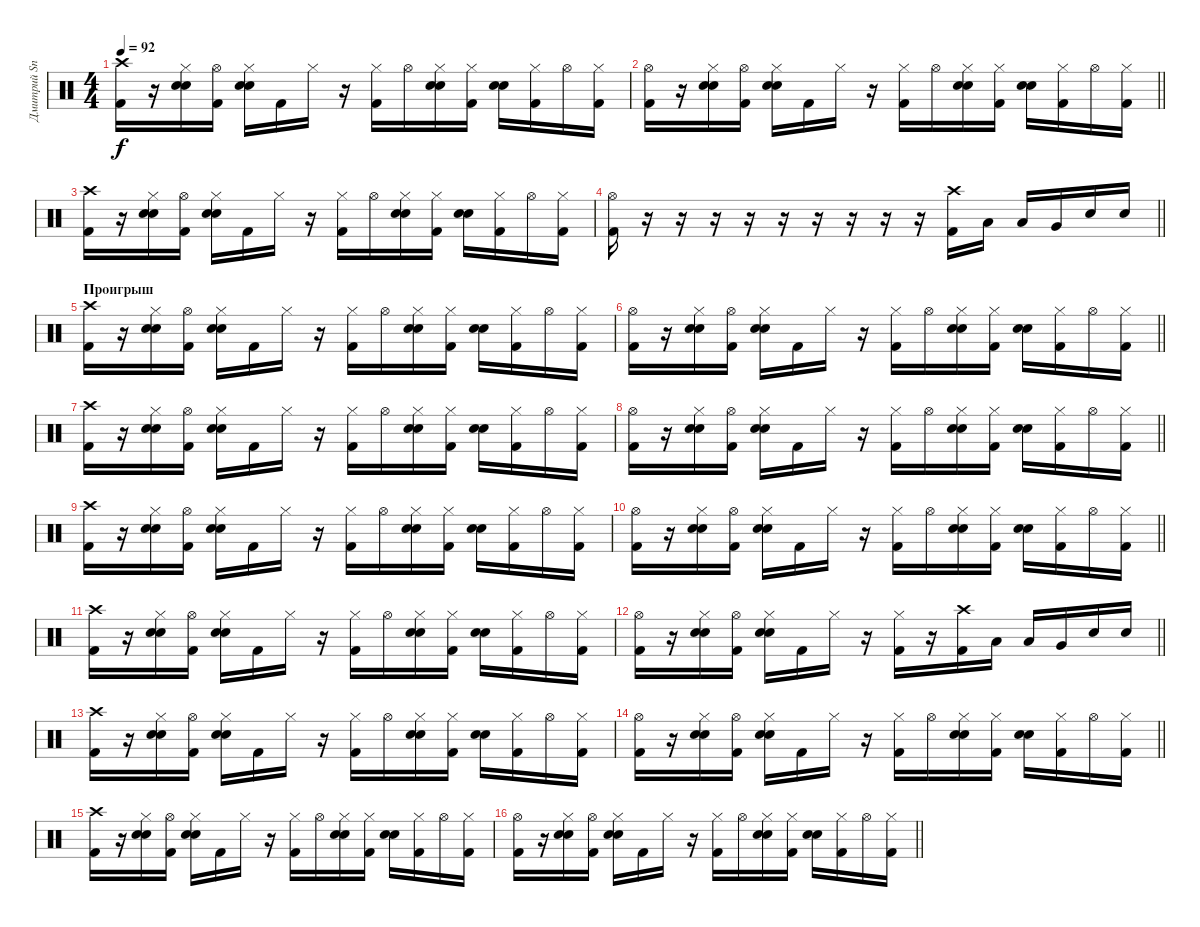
\track ("Дмитрий Snake Хакимов" "Дмитрий Sn") {instrument percussion}
\staff {score}
\articulation defaults
\ts (4 4)
\tempo 92
\clef neutral
\ks c
("Crash high (hit)" "Kick (hit) 2").16{dy f} r.16 ("Hi-Hat (closed)" "Snare (hit) 2" "Electric Snare (hit)").16 ("Hi-Hat (open)" "Kick (hit) 2").16 ("Hi-Hat (closed)" "Snare (hit) 2" "Electric Snare (hit)").16 "Kick (hit) 2".16 "Hi-Hat (closed)".16 r.16 ("Hi-Hat (closed)" "Kick (hit) 2").16 "Hi-Hat (open)".16 ("Hi-Hat (closed)" "Snare (hit) 2" "Electric Snare (hit)").16 ("Hi-Hat (closed)" "Kick (hit) 2").16 ("Snare (hit) 2" "Electric Snare (hit)").16 ("Hi-Hat (closed)" "Kick (hit) 2").16 "Hi-Hat (open)".16 ("Hi-Hat (closed)" "Kick (hit) 2").16 |
\barLineRight lightlight
("Hi-Hat (open)" "Kick (hit) 2").16 r.16 ("Hi-Hat (closed)" "Snare (hit) 2" "Electric Snare (hit)").16 ("Hi-Hat (open)" "Kick (hit) 2").16 ("Hi-Hat (closed)" "Snare (hit) 2" "Electric Snare (hit)").16 "Kick (hit) 2".16 "Hi-Hat (closed)".16 r.16 ("Hi-Hat (closed)" "Kick (hit) 2").16 "Hi-Hat (open)".16 ("Hi-Hat (closed)" "Snare (hit) 2" "Electric Snare (hit)").16 ("Hi-Hat (closed)" "Kick (hit) 2").16 ("Snare (hit) 2" "Electric Snare (hit)").16 ("Hi-Hat (closed)" "Kick (hit) 2").16 "Hi-Hat (open)".16 ("Hi-Hat (closed)" "Kick (hit) 2").16 |
("Crash high (hit)" "Kick (hit) 2").16 r.16 ("Hi-Hat (closed)" "Snare (hit) 2" "Electric Snare (hit)").16 ("Hi-Hat (open)" "Kick (hit) 2").16 ("Hi-Hat (closed)" "Snare (hit) 2" "Electric Snare (hit)").16 "Kick (hit) 2".16 "Hi-Hat (closed)".16 r.16 ("Hi-Hat (closed)" "Kick (hit) 2").16 "Hi-Hat (open)".16 ("Hi-Hat (closed)" "Snare (hit) 2" "Electric Snare (hit)").16 ("Hi-Hat (closed)" "Kick (hit) 2").16 ("Snare (hit) 2" "Electric Snare (hit)").16 ("Hi-Hat (closed)" "Kick (hit) 2").16 "Hi-Hat (open)".16 ("Hi-Hat (closed)" "Kick (hit) 2").16 |
\barLineRight lightlight
("Hi-Hat (open)" "Kick (hit) 2").16 r.16 r.16 r.16 r.16 r.16 r.16 r.16 r.16 r.16 ("Crash high (hit)" "Kick (hit) 2").16 "Low Tom (hit)".16 "Low Tom (hit)".16 "Very Low Tom (hit)".16 "Electric Snare (hit)".16 "Electric Snare (hit)".16 |
\section ("" "Проигрыш")
("Crash high (hit)" "Kick (hit) 2").16 r.16 ("Hi-Hat (closed)" "Snare (hit) 2" "Electric Snare (hit)").16 ("Hi-Hat (open)" "Kick (hit) 2").16 ("Hi-Hat (closed)" "Snare (hit) 2" "Electric Snare (hit)").16 "Kick (hit) 2".16 "Hi-Hat (closed)".16 r.16 ("Hi-Hat (closed)" "Kick (hit) 2").16 "Hi-Hat (open)".16 ("Hi-Hat (closed)" "Snare (hit) 2" "Electric Snare (hit)").16 ("Hi-Hat (closed)" "Kick (hit) 2").16 ("Snare (hit) 2" "Electric Snare (hit)").16 ("Hi-Hat (closed)" "Kick (hit) 2").16 "Hi-Hat (open)".16 ("Hi-Hat (closed)" "Kick (hit) 2").16 |
\barLineRight lightlight
("Hi-Hat (open)" "Kick (hit) 2").16 r.16 ("Hi-Hat (closed)" "Snare (hit) 2" "Electric Snare (hit)").16 ("Hi-Hat (open)" "Kick (hit) 2").16 ("Hi-Hat (closed)" "Snare (hit) 2" "Electric Snare (hit)").16 "Kick (hit) 2".16 "Hi-Hat (closed)".16 r.16 ("Hi-Hat (closed)" "Kick (hit) 2").16 "Hi-Hat (open)".16 ("Hi-Hat (closed)" "Snare (hit) 2" "Electric Snare (hit)").16 ("Hi-Hat (closed)" "Kick (hit) 2").16 ("Snare (hit) 2" "Electric Snare (hit)").16 ("Hi-Hat (closed)" "Kick (hit) 2").16 "Hi-Hat (open)".16 ("Hi-Hat (closed)" "Kick (hit) 2").16 |
("Crash high (hit)" "Kick (hit) 2").16 r.16 ("Hi-Hat (closed)" "Snare (hit) 2" "Electric Snare (hit)").16 ("Hi-Hat (open)" "Kick (hit) 2").16 ("Hi-Hat (closed)" "Snare (hit) 2" "Electric Snare (hit)").16 "Kick (hit) 2".16 "Hi-Hat (closed)".16 r.16 ("Hi-Hat (closed)" "Kick (hit) 2").16 "Hi-Hat (open)".16 ("Hi-Hat (closed)" "Snare (hit) 2" "Electric Snare (hit)").16 ("Hi-Hat (closed)" "Kick (hit) 2").16 ("Snare (hit) 2" "Electric Snare (hit)").16 ("Hi-Hat (closed)" "Kick (hit) 2").16 "Hi-Hat (open)".16 ("Hi-Hat (closed)" "Kick (hit) 2").16 |
\barLineRight lightlight
("Hi-Hat (open)" "Kick (hit) 2").16 r.16 ("Hi-Hat (closed)" "Snare (hit) 2" "Electric Snare (hit)").16 ("Hi-Hat (open)" "Kick (hit) 2").16 ("Hi-Hat (closed)" "Snare (hit) 2" "Electric Snare (hit)").16 "Kick (hit) 2".16 "Hi-Hat (closed)".16 r.16 ("Hi-Hat (closed)" "Kick (hit) 2").16 "Hi-Hat (open)".16 ("Hi-Hat (closed)" "Snare (hit) 2" "Electric Snare (hit)").16 ("Hi-Hat (closed)" "Kick (hit) 2").16 ("Snare (hit) 2" "Electric Snare (hit)").16 ("Hi-Hat (closed)" "Kick (hit) 2").16 "Hi-Hat (open)".16 ("Hi-Hat (closed)" "Kick (hit) 2").16 |
("Crash high (hit)" "Kick (hit) 2").16 r.16 ("Hi-Hat (closed)" "Snare (hit) 2" "Electric Snare (hit)").16 ("Hi-Hat (open)" "Kick (hit) 2").16 ("Hi-Hat (closed)" "Snare (hit) 2" "Electric Snare (hit)").16 "Kick (hit) 2".16 "Hi-Hat (closed)".16 r.16 ("Hi-Hat (closed)" "Kick (hit) 2").16 "Hi-Hat (open)".16 ("Hi-Hat (closed)" "Snare (hit) 2" "Electric Snare (hit)").16 ("Hi-Hat (closed)" "Kick (hit) 2").16 ("Snare (hit) 2" "Electric Snare (hit)").16 ("Hi-Hat (closed)" "Kick (hit) 2").16 "Hi-Hat (open)".16 ("Hi-Hat (closed)" "Kick (hit) 2").16 |
\barLineRight lightlight
("Hi-Hat (open)" "Kick (hit) 2").16 r.16 ("Hi-Hat (closed)" "Snare (hit) 2" "Electric Snare (hit)").16 ("Hi-Hat (open)" "Kick (hit) 2").16 ("Hi-Hat (closed)" "Snare (hit) 2" "Electric Snare (hit)").16 "Kick (hit) 2".16 "Hi-Hat (closed)".16 r.16 ("Hi-Hat (closed)" "Kick (hit) 2").16 "Hi-Hat (open)".16 ("Hi-Hat (closed)" "Snare (hit) 2" "Electric Snare (hit)").16 ("Hi-Hat (closed)" "Kick (hit) 2").16 ("Snare (hit) 2" "Electric Snare (hit)").16 ("Hi-Hat (closed)" "Kick (hit) 2").16 "Hi-Hat (open)".16 ("Hi-Hat (closed)" "Kick (hit) 2").16 |
("Crash high (hit)" "Kick (hit) 2").16 r.16 ("Hi-Hat (closed)" "Snare (hit) 2" "Electric Snare (hit)").16 ("Hi-Hat (open)" "Kick (hit) 2").16 ("Hi-Hat (closed)" "Snare (hit) 2" "Electric Snare (hit)").16 "Kick (hit) 2".16 "Hi-Hat (closed)".16 r.16 ("Hi-Hat (closed)" "Kick (hit) 2").16 "Hi-Hat (open)".16 ("Hi-Hat (closed)" "Snare (hit) 2" "Electric Snare (hit)").16 ("Hi-Hat (closed)" "Kick (hit) 2").16 ("Snare (hit) 2" "Electric Snare (hit)").16 ("Hi-Hat (closed)" "Kick (hit) 2").16 "Hi-Hat (open)".16 ("Hi-Hat (closed)" "Kick (hit) 2").16 |
\barLineRight lightlight
("Hi-Hat (open)" "Kick (hit) 2").16 r.16 ("Hi-Hat (closed)" "Snare (hit) 2" "Electric Snare (hit)").16 ("Hi-Hat (open)" "Kick (hit) 2").16 ("Hi-Hat (closed)" "Snare (hit) 2" "Electric Snare (hit)").16 "Kick (hit) 2".16 "Hi-Hat (closed)".16 r.16 ("Hi-Hat (closed)" "Kick (hit) 2").16 r.16 ("Crash high (hit)" "Kick (hit) 2").16 "Low Tom (hit)".16 "Low Tom (hit)".16 "Very Low Tom (hit)".16 "Electric Snare (hit)".16 "Electric Snare (hit)".16 |
\section ("" "")
("Crash high (hit)" "Kick (hit) 2").16 r.16 ("Hi-Hat (closed)" "Snare (hit) 2" "Electric Snare (hit)").16 ("Hi-Hat (open)" "Kick (hit) 2").16 ("Hi-Hat (closed)" "Snare (hit) 2" "Electric Snare (hit)").16 "Kick (hit) 2".16 "Hi-Hat (closed)".16 r.16 ("Hi-Hat (closed)" "Kick (hit) 2").16 "Hi-Hat (open)".16 ("Hi-Hat (closed)" "Snare (hit) 2" "Electric Snare (hit)").16 ("Hi-Hat (closed)" "Kick (hit) 2").16 ("Snare (hit) 2" "Electric Snare (hit)").16 ("Hi-Hat (closed)" "Kick (hit) 2").16 "Hi-Hat (open)".16 ("Hi-Hat (closed)" "Kick (hit) 2").16 |
\barLineRight lightlight
("Hi-Hat (open)" "Kick (hit) 2").16 r.16 ("Hi-Hat (closed)" "Snare (hit) 2" "Electric Snare (hit)").16 ("Hi-Hat (open)" "Kick (hit) 2").16 ("Hi-Hat (closed)" "Snare (hit) 2" "Electric Snare (hit)").16 "Kick (hit) 2".16 "Hi-Hat (closed)".16 r.16 ("Hi-Hat (closed)" "Kick (hit) 2").16 "Hi-Hat (open)".16 ("Hi-Hat (closed)" "Snare (hit) 2" "Electric Snare (hit)").16 ("Hi-Hat (closed)" "Kick (hit) 2").16 ("Snare (hit) 2" "Electric Snare (hit)").16 ("Hi-Hat (closed)" "Kick (hit) 2").16 "Hi-Hat (open)".16 ("Hi-Hat (closed)" "Kick (hit) 2").16 |
("Crash high (hit)" "Kick (hit) 2").16 r.16 ("Hi-Hat (closed)" "Snare (hit) 2" "Electric Snare (hit)").16 ("Hi-Hat (open)" "Kick (hit) 2").16 ("Hi-Hat (closed)" "Snare (hit) 2" "Electric Snare (hit)").16 "Kick (hit) 2".16 "Hi-Hat (closed)".16 r.16 ("Hi-Hat (closed)" "Kick (hit) 2").16 "Hi-Hat (open)".16 ("Hi-Hat (closed)" "Snare (hit) 2" "Electric Snare (hit)").16 ("Hi-Hat (closed)" "Kick (hit) 2").16 ("Snare (hit) 2" "Electric Snare (hit)").16 ("Hi-Hat (closed)" "Kick (hit) 2").16 "Hi-Hat (open)".16 ("Hi-Hat (closed)" "Kick (hit) 2").16 |
\barLineRight lightlight
("Hi-Hat (open)" "Kick (hit) 2").16 r.16 ("Hi-Hat (closed)" "Snare (hit) 2" "Electric Snare (hit)").16 ("Hi-Hat (open)" "Kick (hit) 2").16 ("Hi-Hat (closed)" "Snare (hit) 2" "Electric Snare (hit)").16 "Kick (hit) 2".16 "Hi-Hat (closed)".16 r.16 ("Hi-Hat (closed)" "Kick (hit) 2").16 "Hi-Hat (open)".16 ("Hi-Hat (closed)" "Snare (hit) 2" "Electric Snare (hit)").16 ("Hi-Hat (closed)" "Kick (hit) 2").16 ("Snare (hit) 2" "Electric Snare (hit)").16 ("Hi-Hat (closed)" "Kick (hit) 2").16 "Hi-Hat (open)".16 ("Hi-Hat (closed)" "Kick (hit) 2").16
